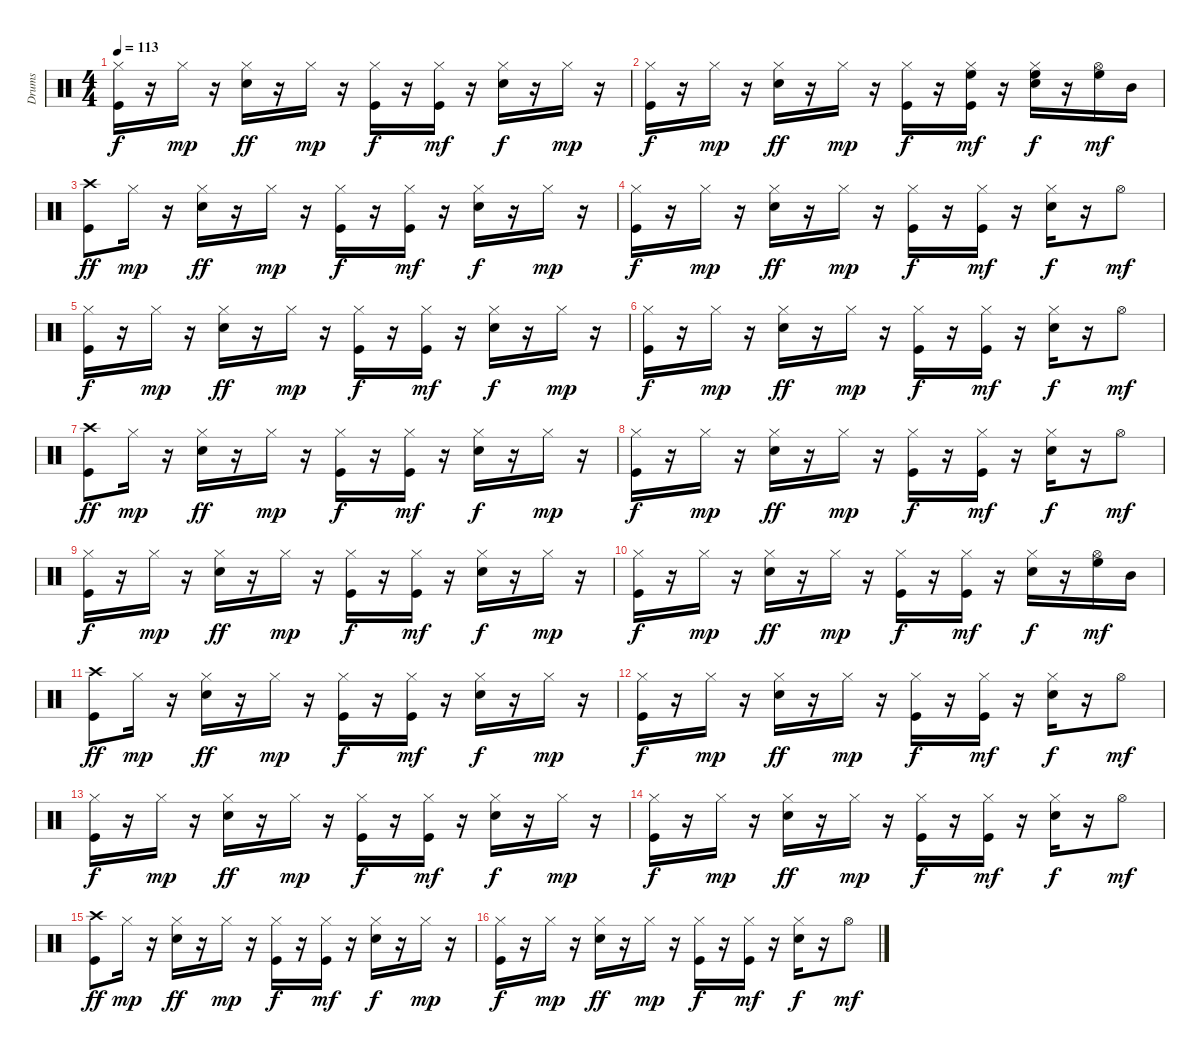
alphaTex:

\track ("Drums" "Drums") {instrument percussion}
\staff {score}
\articulation defaults
\ts (4 4)
\tempo 113
\clef neutral
\ks c
("Hi-Hat (closed)" "Kick (hit)").16{dy f} r.16 "Hi-Hat (closed)".16{dy mp} r.16 ("Electric Snare (hit)" "Hi-Hat (closed)").16{dy ff} r.16 "Hi-Hat (closed)".16{dy mp} r.16 ("Hi-Hat (closed)" "Kick (hit)").16{dy f} r.16 ("Hi-Hat (closed)" "Kick (hit)").16{dy mf} r.16 ("Electric Snare (hit)" "Hi-Hat (closed)").16{dy f} r.16 "Hi-Hat (closed)".16{dy mp} r.16 |
("Hi-Hat (closed)" "Kick (hit)").16{dy f} r.16 "Hi-Hat (closed)".16{dy mp} r.16 ("Electric Snare (hit)" "Hi-Hat (closed)").16{dy ff} r.16 "Hi-Hat (closed)".16{dy mp} r.16 ("Hi-Hat (closed)" "Kick (hit)").16{dy f} r.16 ("Hi-Hat (closed)" "High Floor Tom (hit)" "Kick (hit)").16{dy mf} r.16 ("Electric Snare (hit)" "Hi-Hat (closed)" "High Floor Tom (hit)").16{dy f} r.16 ("Hi-Hat (open)" "High Floor Tom (hit)").16{dy mf} "Mid Tom (hit)".16 |
("Crash high (hit)" "Kick (hit)").8{dy ff} "Hi-Hat (closed)".16{dy mp} r.16 ("Electric Snare (hit)" "Hi-Hat (closed)").16{dy ff} r.16 "Hi-Hat (closed)".16{dy mp} r.16 ("Hi-Hat (closed)" "Kick (hit)").16{dy f} r.16 ("Hi-Hat (closed)" "Kick (hit)").16{dy mf} r.16 ("Electric Snare (hit)" "Hi-Hat (closed)").16{dy f} r.16 "Hi-Hat (closed)".16{dy mp} r.16 |
("Hi-Hat (closed)" "Kick (hit)").16{dy f} r.16 "Hi-Hat (closed)".16{dy mp} r.16 ("Electric Snare (hit)" "Hi-Hat (closed)").16{dy ff} r.16 "Hi-Hat (closed)".16{dy mp} r.16 ("Hi-Hat (closed)" "Kick (hit)").16{dy f} r.16 ("Hi-Hat (closed)" "Kick (hit)").16{dy mf} r.16 ("Electric Snare (hit)" "Hi-Hat (closed)").16{dy f} r.16 "Hi-Hat (open)".8{dy mf} |
("Hi-Hat (closed)" "Kick (hit)").16{dy f} r.16 "Hi-Hat (closed)".16{dy mp} r.16 ("Electric Snare (hit)" "Hi-Hat (closed)").16{dy ff} r.16 "Hi-Hat (closed)".16{dy mp} r.16 ("Hi-Hat (closed)" "Kick (hit)").16{dy f} r.16 ("Hi-Hat (closed)" "Kick (hit)").16{dy mf} r.16 ("Electric Snare (hit)" "Hi-Hat (closed)").16{dy f} r.16 "Hi-Hat (closed)".16{dy mp} r.16 |
("Hi-Hat (closed)" "Kick (hit)").16{dy f} r.16 "Hi-Hat (closed)".16{dy mp} r.16 ("Electric Snare (hit)" "Hi-Hat (closed)").16{dy ff} r.16 "Hi-Hat (closed)".16{dy mp} r.16 ("Hi-Hat (closed)" "Kick (hit)").16{dy f} r.16 ("Hi-Hat (closed)" "Kick (hit)").16{dy mf} r.16 ("Electric Snare (hit)" "Hi-Hat (closed)").16{dy f} r.16 "Hi-Hat (open)".8{dy mf} |
("Crash high (hit)" "Kick (hit)").8{dy ff} "Hi-Hat (closed)".16{dy mp} r.16 ("Electric Snare (hit)" "Hi-Hat (closed)").16{dy ff} r.16 "Hi-Hat (closed)".16{dy mp} r.16 ("Hi-Hat (closed)" "Kick (hit)").16{dy f} r.16 ("Hi-Hat (closed)" "Kick (hit)").16{dy mf} r.16 ("Electric Snare (hit)" "Hi-Hat (closed)").16{dy f} r.16 "Hi-Hat (closed)".16{dy mp} r.16 |
("Hi-Hat (closed)" "Kick (hit)").16{dy f} r.16 "Hi-Hat (closed)".16{dy mp} r.16 ("Electric Snare (hit)" "Hi-Hat (closed)").16{dy ff} r.16 "Hi-Hat (closed)".16{dy mp} r.16 ("Hi-Hat (closed)" "Kick (hit)").16{dy f} r.16 ("Hi-Hat (closed)" "Kick (hit)").16{dy mf} r.16 ("Electric Snare (hit)" "Hi-Hat (closed)").16{dy f} r.16 "Hi-Hat (open)".8{dy mf} |
("Hi-Hat (closed)" "Kick (hit)").16{dy f} r.16 "Hi-Hat (closed)".16{dy mp} r.16 ("Electric Snare (hit)" "Hi-Hat (closed)").16{dy ff} r.16 "Hi-Hat (closed)".16{dy mp} r.16 ("Hi-Hat (closed)" "Kick (hit)").16{dy f} r.16 ("Hi-Hat (closed)" "Kick (hit)").16{dy mf} r.16 ("Electric Snare (hit)" "Hi-Hat (closed)").16{dy f} r.16 "Hi-Hat (closed)".16{dy mp} r.16 |
("Hi-Hat (closed)" "Kick (hit)").16{dy f} r.16 "Hi-Hat (closed)".16{dy mp} r.16 ("Electric Snare (hit)" "Hi-Hat (closed)").16{dy ff} r.16 "Hi-Hat (closed)".16{dy mp} r.16 ("Hi-Hat (closed)" "Kick (hit)").16{dy f} r.16 ("Hi-Hat (closed)" "Kick (hit)").16{dy mf} r.16 ("Electric Snare (hit)" "Hi-Hat (closed)").16{dy f} r.16 ("Hi-Hat (open)" "High Floor Tom (hit)").16{dy mf} "Mid Tom (hit)".16 |
("Crash high (hit)" "Kick (hit)").8{dy ff} "Hi-Hat (closed)".16{dy mp} r.16 ("Electric Snare (hit)" "Hi-Hat (closed)").16{dy ff} r.16 "Hi-Hat (closed)".16{dy mp} r.16 ("Hi-Hat (closed)" "Kick (hit)").16{dy f} r.16 ("Hi-Hat (closed)" "Kick (hit)").16{dy mf} r.16 ("Electric Snare (hit)" "Hi-Hat (closed)").16{dy f} r.16 "Hi-Hat (closed)".16{dy mp} r.16 |
("Hi-Hat (closed)" "Kick (hit)").16{dy f} r.16 "Hi-Hat (closed)".16{dy mp} r.16 ("Electric Snare (hit)" "Hi-Hat (closed)").16{dy ff} r.16 "Hi-Hat (closed)".16{dy mp} r.16 ("Hi-Hat (closed)" "Kick (hit)").16{dy f} r.16 ("Hi-Hat (closed)" "Kick (hit)").16{dy mf} r.16 ("Electric Snare (hit)" "Hi-Hat (closed)").16{dy f} r.16 "Hi-Hat (open)".8{dy mf} |
("Hi-Hat (closed)" "Kick (hit)").16{dy f} r.16 "Hi-Hat (closed)".16{dy mp} r.16 ("Electric Snare (hit)" "Hi-Hat (closed)").16{dy ff} r.16 "Hi-Hat (closed)".16{dy mp} r.16 ("Hi-Hat (closed)" "Kick (hit)").16{dy f} r.16 ("Hi-Hat (closed)" "Kick (hit)").16{dy mf} r.16 ("Electric Snare (hit)" "Hi-Hat (closed)").16{dy f} r.16 "Hi-Hat (closed)".16{dy mp} r.16 |
("Hi-Hat (closed)" "Kick (hit)").16{dy f} r.16 "Hi-Hat (closed)".16{dy mp} r.16 ("Electric Snare (hit)" "Hi-Hat (closed)").16{dy ff} r.16 "Hi-Hat (closed)".16{dy mp} r.16 ("Hi-Hat (closed)" "Kick (hit)").16{dy f} r.16 ("Hi-Hat (closed)" "Kick (hit)").16{dy mf} r.16 ("Electric Snare (hit)" "Hi-Hat (closed)").16{dy f} r.16 "Hi-Hat (open)".8{dy mf} |
("Crash high (hit)" "Kick (hit)").8{dy ff} "Hi-Hat (closed)".16{dy mp} r.16 ("Electric Snare (hit)" "Hi-Hat (closed)").16{dy ff} r.16 "Hi-Hat (closed)".16{dy mp} r.16 ("Hi-Hat (closed)" "Kick (hit)").16{dy f} r.16 ("Hi-Hat (closed)" "Kick (hit)").16{dy mf} r.16 ("Electric Snare (hit)" "Hi-Hat (closed)").16{dy f} r.16 "Hi-Hat (closed)".16{dy mp} r.16 |
("Hi-Hat (closed)" "Kick (hit)").16{dy f} r.16 "Hi-Hat (closed)".16{dy mp} r.16 ("Electric Snare (hit)" "Hi-Hat (closed)").16{dy ff} r.16 "Hi-Hat (closed)".16{dy mp} r.16 ("Hi-Hat (closed)" "Kick (hit)").16{dy f} r.16 ("Hi-Hat (closed)" "Kick (hit)").16{dy mf} r.16 ("Electric Snare (hit)" "Hi-Hat (closed)").16{dy f} r.16 "Hi-Hat (open)".8{dy mf}
